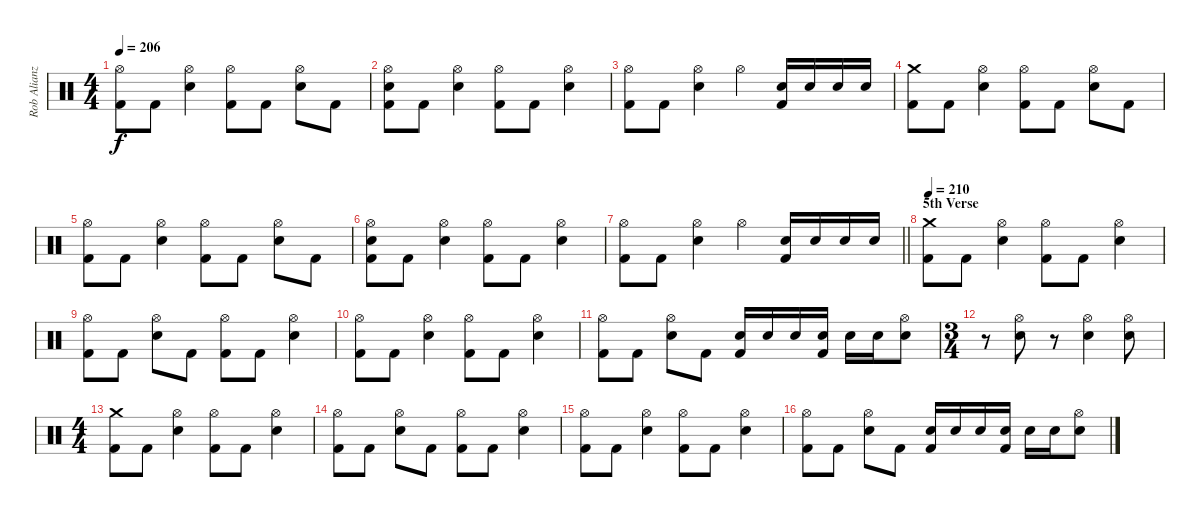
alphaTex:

\track ("Rob Alianz" "Rob Alianz") {instrument percussion}
\staff {score}
\articulation defaults
\ts (4 4)
\tempo 206
\clef neutral
\ks c
("Hi-Hat (open)" "Kick (hit) 2").8{dy f} "Kick (hit) 2".8 ("Hi-Hat (open)" "Electric Snare (hit)").4 ("Hi-Hat (open)" "Kick (hit) 2").8 "Kick (hit) 2".8 ("Hi-Hat (open)" "Electric Snare (hit)").8 "Kick (hit) 2".8 |
("Hi-Hat (open)" "Electric Snare (hit)" "Kick (hit) 2").8 "Kick (hit) 2".8 ("Hi-Hat (open)" "Electric Snare (hit)").4 ("Hi-Hat (open)" "Kick (hit) 2").8 "Kick (hit) 2".8 ("Hi-Hat (open)" "Electric Snare (hit)").4 |
("Hi-Hat (open)" "Kick (hit) 2").8 "Kick (hit) 2".8 ("Hi-Hat (open)" "Electric Snare (hit)").4 "Hi-Hat (open)".4 ("Electric Snare (hit)" "Kick (hit) 2").16 "Electric Snare (hit)".16 "Electric Snare (hit)".16 "Electric Snare (hit)".16 |
("Crash medium (hit)" "Kick (hit) 2").8 "Kick (hit) 2".8 ("Hi-Hat (open)" "Electric Snare (hit)").4 ("Hi-Hat (open)" "Kick (hit) 2").8 "Kick (hit) 2".8 ("Hi-Hat (open)" "Electric Snare (hit)").8 "Kick (hit) 2".8 |
("Hi-Hat (open)" "Kick (hit) 2").8 "Kick (hit) 2".8 ("Hi-Hat (open)" "Electric Snare (hit)").4 ("Hi-Hat (open)" "Kick (hit) 2").8 "Kick (hit) 2".8 ("Hi-Hat (open)" "Electric Snare (hit)").8 "Kick (hit) 2".8 |
("Hi-Hat (open)" "Electric Snare (hit)" "Kick (hit) 2").8 "Kick (hit) 2".8 ("Hi-Hat (open)" "Electric Snare (hit)").4 ("Hi-Hat (open)" "Kick (hit) 2").8 "Kick (hit) 2".8 ("Hi-Hat (open)" "Electric Snare (hit)").4 |
\barLineRight lightlight
("Hi-Hat (open)" "Kick (hit) 2").8 "Kick (hit) 2".8 ("Hi-Hat (open)" "Electric Snare (hit)").4 "Hi-Hat (open)".4 ("Electric Snare (hit)" "Kick (hit) 2").16 "Electric Snare (hit)".16 "Electric Snare (hit)".16 "Electric Snare (hit)".16 |
\section ("" "5th Verse")
\tempo 210
("Crash medium (hit)" "Kick (hit) 2").8 "Kick (hit) 2".8 ("Hi-Hat (open)" "Electric Snare (hit)").4 ("Hi-Hat (open)" "Kick (hit) 2").8 "Kick (hit) 2".8 ("Hi-Hat (open)" "Electric Snare (hit)").4 |
("Hi-Hat (open)" "Kick (hit) 2").8 "Kick (hit) 2".8 ("Hi-Hat (open)" "Electric Snare (hit)").8 "Kick (hit) 2".8 ("Hi-Hat (open)" "Kick (hit) 2").8 "Kick (hit) 2".8 ("Hi-Hat (open)" "Electric Snare (hit)").4 |
("Hi-Hat (open)" "Kick (hit) 2").8 "Kick (hit) 2".8 ("Hi-Hat (open)" "Electric Snare (hit)").4 ("Hi-Hat (open)" "Kick (hit) 2").8 "Kick (hit) 2".8 ("Hi-Hat (open)" "Electric Snare (hit)").4 |
("Hi-Hat (open)" "Kick (hit) 2").8 "Kick (hit) 2".8 ("Hi-Hat (open)" "Electric Snare (hit)").8 "Kick (hit) 2".8 ("Electric Snare (hit)" "Kick (hit) 2").16 "Electric Snare (hit)".16 "Electric Snare (hit)".16 ("Electric Snare (hit)" "Kick (hit) 2").16 "Electric Snare (hit)".16 "Electric Snare (hit)".16 ("Hi-Hat (open)" "Electric Snare (hit)").8 |
\ts (3 4)
r.8 ("Hi-Hat (open)" "Electric Snare (hit)").8 r.8 ("Hi-Hat (open)" "Electric Snare (hit)").4 ("Hi-Hat (open)" "Electric Snare (hit)").8 |
\ts (4 4)
("Crash medium (hit)" "Kick (hit) 2").8 "Kick (hit) 2".8 ("Hi-Hat (open)" "Electric Snare (hit)").4 ("Hi-Hat (open)" "Kick (hit) 2").8 "Kick (hit) 2".8 ("Hi-Hat (open)" "Electric Snare (hit)").4 |
("Hi-Hat (open)" "Kick (hit) 2").8 "Kick (hit) 2".8 ("Hi-Hat (open)" "Electric Snare (hit)").8 "Kick (hit) 2".8 ("Hi-Hat (open)" "Kick (hit) 2").8 "Kick (hit) 2".8 ("Hi-Hat (open)" "Electric Snare (hit)").4 |
("Hi-Hat (open)" "Kick (hit) 2").8 "Kick (hit) 2".8 ("Hi-Hat (open)" "Electric Snare (hit)").4 ("Hi-Hat (open)" "Kick (hit) 2").8 "Kick (hit) 2".8 ("Hi-Hat (open)" "Electric Snare (hit)").4 |
("Hi-Hat (open)" "Kick (hit) 2").8 "Kick (hit) 2".8 ("Hi-Hat (open)" "Electric Snare (hit)").8 "Kick (hit) 2".8 ("Electric Snare (hit)" "Kick (hit) 2").16 "Electric Snare (hit)".16 "Electric Snare (hit)".16 ("Electric Snare (hit)" "Kick (hit) 2").16 "Electric Snare (hit)".16 "Electric Snare (hit)".16 ("Hi-Hat (open)" "Electric Snare (hit)").8
